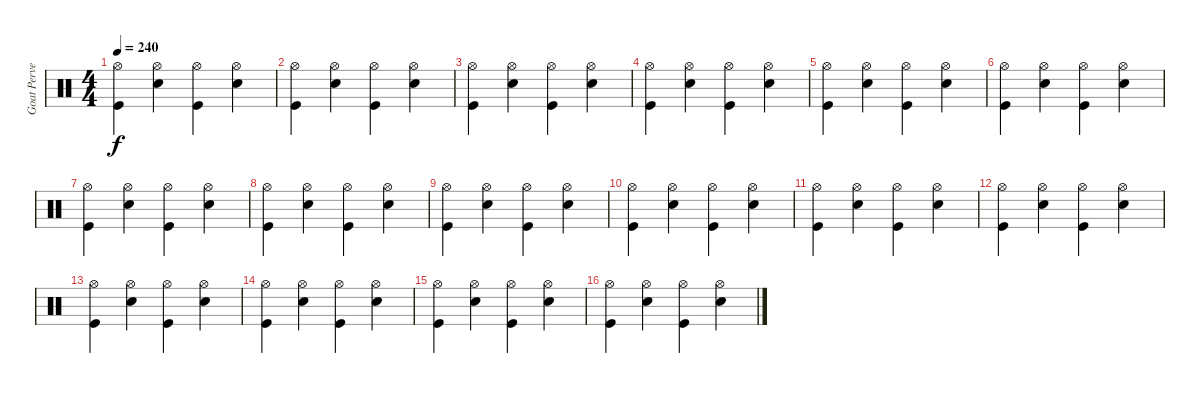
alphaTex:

\track ("Goat Pervertor" "Goat Perve") {instrument percussion}
\staff {score}
\articulation defaults
\ts (4 4)
\tempo 240
\clef neutral
\ks c
("Kick (hit)" "Hi-Hat (open)").4{dy f} ("Snare (hit) 2" "Hi-Hat (open)").4 ("Kick (hit)" "Hi-Hat (open)").4 ("Snare (hit) 2" "Hi-Hat (open)").4 |
("Kick (hit)" "Hi-Hat (open)").4 ("Snare (hit) 2" "Hi-Hat (open)").4 ("Kick (hit)" "Hi-Hat (open)").4 ("Snare (hit) 2" "Hi-Hat (open)").4 |
("Kick (hit)" "Hi-Hat (open)").4 ("Snare (hit) 2" "Hi-Hat (open)").4 ("Kick (hit)" "Hi-Hat (open)").4 ("Snare (hit) 2" "Hi-Hat (open)").4 |
("Kick (hit)" "Hi-Hat (open)").4 ("Snare (hit) 2" "Hi-Hat (open)").4 ("Kick (hit)" "Hi-Hat (open)").4 ("Snare (hit) 2" "Hi-Hat (open)").4 |
("Kick (hit)" "Hi-Hat (open)").4 ("Snare (hit) 2" "Hi-Hat (open)").4 ("Kick (hit)" "Hi-Hat (open)").4 ("Snare (hit) 2" "Hi-Hat (open)").4 |
("Kick (hit)" "Hi-Hat (open)").4 ("Snare (hit) 2" "Hi-Hat (open)").4 ("Kick (hit)" "Hi-Hat (open)").4 ("Snare (hit) 2" "Hi-Hat (open)").4 |
("Kick (hit)" "Hi-Hat (open)").4 ("Snare (hit) 2" "Hi-Hat (open)").4 ("Kick (hit)" "Hi-Hat (open)").4 ("Snare (hit) 2" "Hi-Hat (open)").4 |
("Kick (hit)" "Hi-Hat (open)").4 ("Snare (hit) 2" "Hi-Hat (open)").4 ("Kick (hit)" "Hi-Hat (open)").4 ("Snare (hit) 2" "Hi-Hat (open)").4 |
("Kick (hit)" "Hi-Hat (open)").4 ("Snare (hit) 2" "Hi-Hat (open)").4 ("Kick (hit)" "Hi-Hat (open)").4 ("Snare (hit) 2" "Hi-Hat (open)").4 |
("Kick (hit)" "Hi-Hat (open)").4 ("Snare (hit) 2" "Hi-Hat (open)").4 ("Kick (hit)" "Hi-Hat (open)").4 ("Snare (hit) 2" "Hi-Hat (open)").4 |
("Kick (hit)" "Hi-Hat (open)").4 ("Snare (hit) 2" "Hi-Hat (open)").4 ("Kick (hit)" "Hi-Hat (open)").4 ("Snare (hit) 2" "Hi-Hat (open)").4 |
("Kick (hit)" "Hi-Hat (open)").4 ("Snare (hit) 2" "Hi-Hat (open)").4 ("Kick (hit)" "Hi-Hat (open)").4 ("Snare (hit) 2" "Hi-Hat (open)").4 |
("Kick (hit)" "Hi-Hat (open)").4 ("Snare (hit) 2" "Hi-Hat (open)").4 ("Kick (hit)" "Hi-Hat (open)").4 ("Snare (hit) 2" "Hi-Hat (open)").4 |
("Kick (hit)" "Hi-Hat (open)").4 ("Snare (hit) 2" "Hi-Hat (open)").4 ("Kick (hit)" "Hi-Hat (open)").4 ("Snare (hit) 2" "Hi-Hat (open)").4 |
("Kick (hit)" "Hi-Hat (open)").4 ("Snare (hit) 2" "Hi-Hat (open)").4 ("Kick (hit)" "Hi-Hat (open)").4 ("Snare (hit) 2" "Hi-Hat (open)").4 |
("Kick (hit)" "Hi-Hat (open)").4 ("Snare (hit) 2" "Hi-Hat (open)").4 ("Kick (hit)" "Hi-Hat (open)").4 ("Snare (hit) 2" "Hi-Hat (open)").4
